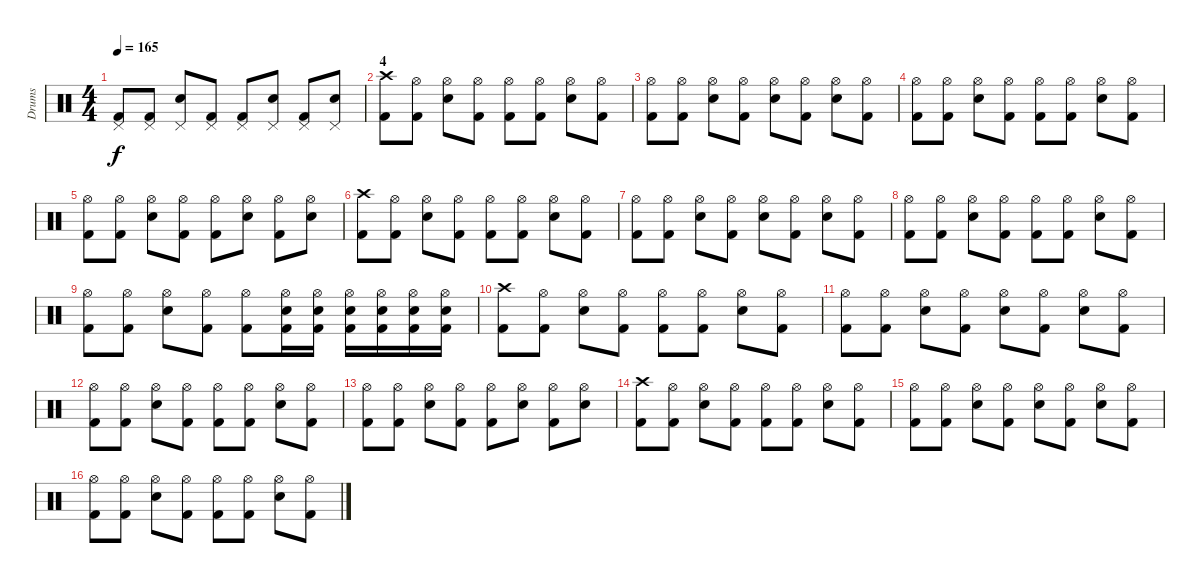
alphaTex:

\track ("Drums" "Drums") {instrument percussion}
\staff {score}
\articulation defaults
\ts (4 4)
\tempo 165
\clef neutral
\ks c
("Pedal Hi-Hat (hit)" "Kick (hit) 2").8{dy f} ("Pedal Hi-Hat (hit)" "Kick (hit) 2").8 ("Pedal Hi-Hat (hit)" "Snare (hit) 2").8 ("Pedal Hi-Hat (hit)" "Kick (hit) 2").8 ("Pedal Hi-Hat (hit)" "Kick (hit) 2").8 ("Pedal Hi-Hat (hit)" "Snare (hit) 2").8 ("Pedal Hi-Hat (hit)" "Kick (hit) 2").8 ("Pedal Hi-Hat (hit)" "Snare (hit) 2").8 |
\section ("" "4")
("Crash high (hit)" "Kick (hit) 2").8 ("Hi-Hat (open)" "Kick (hit) 2").8 ("Hi-Hat (open)" "Snare (hit) 2").8 ("Hi-Hat (open)" "Kick (hit) 2").8 ("Hi-Hat (open)" "Kick (hit) 2").8 ("Hi-Hat (open)" "Kick (hit) 2").8 ("Hi-Hat (open)" "Snare (hit) 2").8 ("Hi-Hat (open)" "Kick (hit) 2").8 |
("Hi-Hat (open)" "Kick (hit) 2").8 ("Hi-Hat (open)" "Kick (hit) 2").8 ("Hi-Hat (open)" "Snare (hit) 2").8 ("Hi-Hat (open)" "Kick (hit) 2").8 ("Hi-Hat (open)" "Snare (hit) 2").8 ("Hi-Hat (open)" "Kick (hit) 2").8 ("Hi-Hat (open)" "Snare (hit) 2").8 ("Hi-Hat (open)" "Kick (hit) 2").8 |
("Hi-Hat (open)" "Kick (hit) 2").8 ("Hi-Hat (open)" "Kick (hit) 2").8 ("Hi-Hat (open)" "Snare (hit) 2").8 ("Hi-Hat (open)" "Kick (hit) 2").8 ("Hi-Hat (open)" "Kick (hit) 2").8 ("Hi-Hat (open)" "Kick (hit) 2").8 ("Hi-Hat (open)" "Snare (hit) 2").8 ("Hi-Hat (open)" "Kick (hit) 2").8 |
("Hi-Hat (open)" "Kick (hit) 2").8 ("Hi-Hat (open)" "Kick (hit) 2").8 ("Hi-Hat (open)" "Snare (hit) 2").8 ("Hi-Hat (open)" "Kick (hit) 2").8 ("Hi-Hat (open)" "Kick (hit) 2").8 ("Hi-Hat (open)" "Snare (hit) 2").8 ("Hi-Hat (open)" "Kick (hit) 2").8 ("Hi-Hat (open)" "Snare (hit) 2").8 |
("Crash high (hit)" "Kick (hit) 2").8 ("Hi-Hat (open)" "Kick (hit) 2").8 ("Hi-Hat (open)" "Snare (hit) 2").8 ("Hi-Hat (open)" "Kick (hit) 2").8 ("Hi-Hat (open)" "Kick (hit) 2").8 ("Hi-Hat (open)" "Kick (hit) 2").8 ("Hi-Hat (open)" "Snare (hit) 2").8 ("Hi-Hat (open)" "Kick (hit) 2").8 |
("Hi-Hat (open)" "Kick (hit) 2").8 ("Hi-Hat (open)" "Kick (hit) 2").8 ("Hi-Hat (open)" "Snare (hit) 2").8 ("Hi-Hat (open)" "Kick (hit) 2").8 ("Hi-Hat (open)" "Snare (hit) 2").8 ("Hi-Hat (open)" "Kick (hit) 2").8 ("Hi-Hat (open)" "Snare (hit) 2").8 ("Hi-Hat (open)" "Kick (hit) 2").8 |
("Hi-Hat (open)" "Kick (hit) 2").8 ("Hi-Hat (open)" "Kick (hit) 2").8 ("Hi-Hat (open)" "Snare (hit) 2").8 ("Hi-Hat (open)" "Kick (hit) 2").8 ("Hi-Hat (open)" "Kick (hit) 2").8 ("Hi-Hat (open)" "Kick (hit) 2").8 ("Hi-Hat (open)" "Snare (hit) 2").8 ("Hi-Hat (open)" "Kick (hit) 2").8 |
("Hi-Hat (open)" "Kick (hit) 2").8 ("Hi-Hat (open)" "Kick (hit) 2").8 ("Hi-Hat (open)" "Snare (hit) 2").8 ("Hi-Hat (open)" "Kick (hit) 2").8 ("Hi-Hat (open)" "Kick (hit) 2").8 ("Hi-Hat (open)" "Kick (hit) 2" "Snare (hit) 2").16 ("Hi-Hat (open)" "Kick (hit) 2" "Snare (hit) 2").16 ("Hi-Hat (open)" "Kick (hit) 2" "Snare (hit) 2").16 ("Hi-Hat (open)" "Kick (hit) 2" "Snare (hit) 2").16 ("Hi-Hat (open)" "Kick (hit) 2" "Snare (hit) 2").16 ("Hi-Hat (open)" "Kick (hit) 2" "Snare (hit) 2").16 |
("Crash high (hit)" "Kick (hit) 2").8 ("Hi-Hat (open)" "Kick (hit) 2").8 ("Hi-Hat (open)" "Snare (hit) 2").8 ("Hi-Hat (open)" "Kick (hit) 2").8 ("Hi-Hat (open)" "Kick (hit) 2").8 ("Hi-Hat (open)" "Kick (hit) 2").8 ("Hi-Hat (open)" "Snare (hit) 2").8 ("Hi-Hat (open)" "Kick (hit) 2").8 |
("Hi-Hat (open)" "Kick (hit) 2").8 ("Hi-Hat (open)" "Kick (hit) 2").8 ("Hi-Hat (open)" "Snare (hit) 2").8 ("Hi-Hat (open)" "Kick (hit) 2").8 ("Hi-Hat (open)" "Snare (hit) 2").8 ("Hi-Hat (open)" "Kick (hit) 2").8 ("Hi-Hat (open)" "Snare (hit) 2").8 ("Hi-Hat (open)" "Kick (hit) 2").8 |
("Hi-Hat (open)" "Kick (hit) 2").8 ("Hi-Hat (open)" "Kick (hit) 2").8 ("Hi-Hat (open)" "Snare (hit) 2").8 ("Hi-Hat (open)" "Kick (hit) 2").8 ("Hi-Hat (open)" "Kick (hit) 2").8 ("Hi-Hat (open)" "Kick (hit) 2").8 ("Hi-Hat (open)" "Snare (hit) 2").8 ("Hi-Hat (open)" "Kick (hit) 2").8 |
("Hi-Hat (open)" "Kick (hit) 2").8 ("Hi-Hat (open)" "Kick (hit) 2").8 ("Hi-Hat (open)" "Snare (hit) 2").8 ("Hi-Hat (open)" "Kick (hit) 2").8 ("Hi-Hat (open)" "Kick (hit) 2").8 ("Hi-Hat (open)" "Snare (hit) 2").8 ("Hi-Hat (open)" "Kick (hit) 2").8 ("Hi-Hat (open)" "Snare (hit) 2").8 |
("Crash high (hit)" "Kick (hit) 2").8 ("Hi-Hat (open)" "Kick (hit) 2").8 ("Hi-Hat (open)" "Snare (hit) 2").8 ("Hi-Hat (open)" "Kick (hit) 2").8 ("Hi-Hat (open)" "Kick (hit) 2").8 ("Hi-Hat (open)" "Kick (hit) 2").8 ("Hi-Hat (open)" "Snare (hit) 2").8 ("Hi-Hat (open)" "Kick (hit) 2").8 |
("Hi-Hat (open)" "Kick (hit) 2").8 ("Hi-Hat (open)" "Kick (hit) 2").8 ("Hi-Hat (open)" "Snare (hit) 2").8 ("Hi-Hat (open)" "Kick (hit) 2").8 ("Hi-Hat (open)" "Snare (hit) 2").8 ("Hi-Hat (open)" "Kick (hit) 2").8 ("Hi-Hat (open)" "Snare (hit) 2").8 ("Hi-Hat (open)" "Kick (hit) 2").8 |
("Hi-Hat (open)" "Kick (hit) 2").8 ("Hi-Hat (open)" "Kick (hit) 2").8 ("Hi-Hat (open)" "Snare (hit) 2").8 ("Hi-Hat (open)" "Kick (hit) 2").8 ("Hi-Hat (open)" "Kick (hit) 2").8 ("Hi-Hat (open)" "Kick (hit) 2").8 ("Hi-Hat (open)" "Snare (hit) 2").8 ("Hi-Hat (open)" "Kick (hit) 2").8
